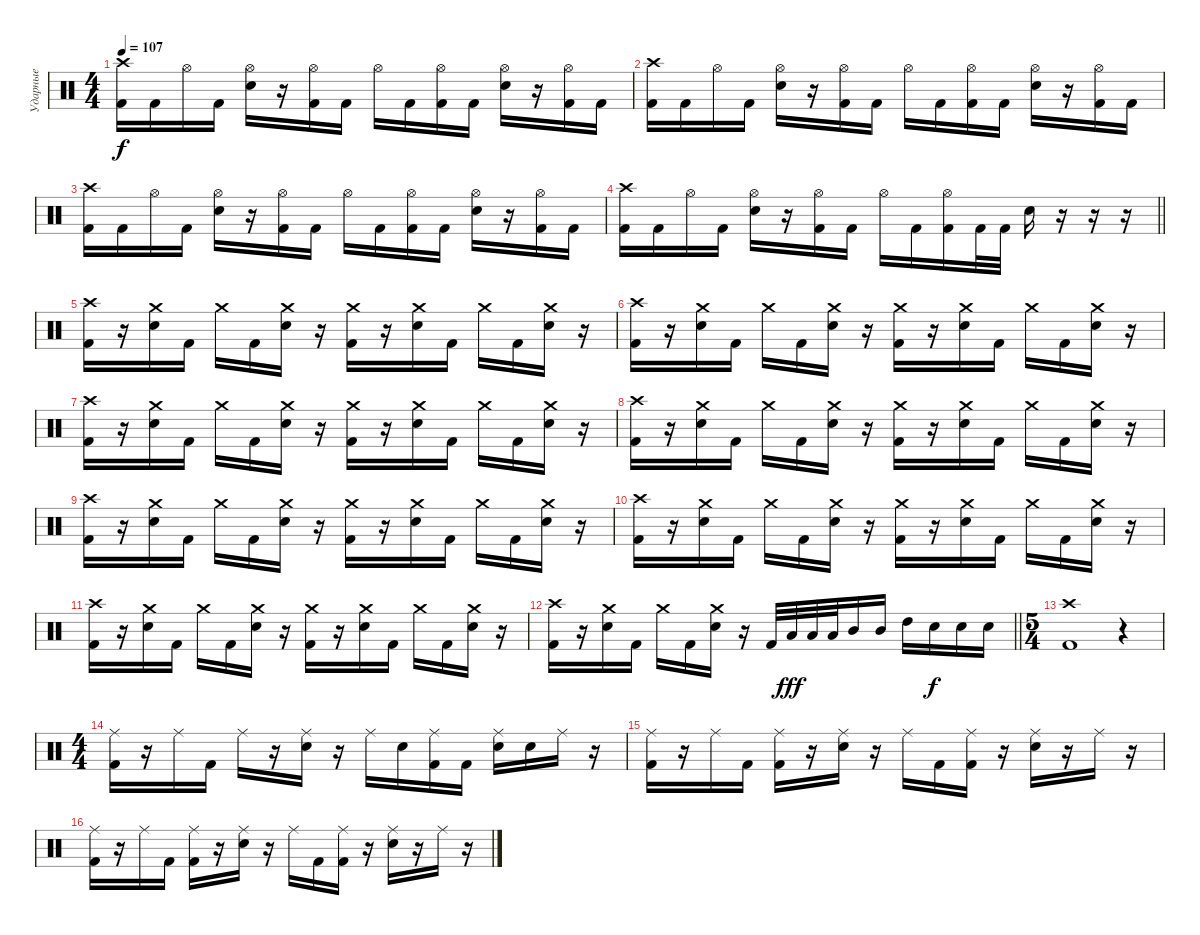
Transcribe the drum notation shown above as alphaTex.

\track ("Ударные" "Ударные") {instrument percussion}
\staff {score}
\articulation defaults
\ts (4 4)
\tempo 107
\clef neutral
\ks c
("Kick (hit) 2" "Crash high (hit)").16{dy f} "Kick (hit) 2".16 "Hi-Hat (open)".16 "Kick (hit) 2".16 ("Electric Snare (hit)" "Hi-Hat (open)").16 r.16 ("Kick (hit) 2" "Hi-Hat (open)").16 "Kick (hit) 2".16 "Hi-Hat (open)".16 "Kick (hit) 2".16 ("Kick (hit) 2" "Hi-Hat (open)").16 "Kick (hit) 2".16 ("Electric Snare (hit)" "Hi-Hat (open)").16 r.16 ("Kick (hit) 2" "Hi-Hat (open)").16 "Kick (hit) 2".16 |
("Kick (hit) 2" "Crash high (hit)").16 "Kick (hit) 2".16 "Hi-Hat (open)".16 "Kick (hit) 2".16 ("Electric Snare (hit)" "Hi-Hat (open)").16 r.16 ("Kick (hit) 2" "Hi-Hat (open)").16 "Kick (hit) 2".16 "Hi-Hat (open)".16 "Kick (hit) 2".16 ("Kick (hit) 2" "Hi-Hat (open)").16 "Kick (hit) 2".16 ("Electric Snare (hit)" "Hi-Hat (open)").16 r.16 ("Kick (hit) 2" "Hi-Hat (open)").16 "Kick (hit) 2".16 |
("Kick (hit) 2" "Crash high (hit)").16 "Kick (hit) 2".16 "Hi-Hat (open)".16 "Kick (hit) 2".16 ("Electric Snare (hit)" "Hi-Hat (open)").16 r.16 ("Kick (hit) 2" "Hi-Hat (open)").16 "Kick (hit) 2".16 "Hi-Hat (open)".16 "Kick (hit) 2".16 ("Kick (hit) 2" "Hi-Hat (open)").16 "Kick (hit) 2".16 ("Electric Snare (hit)" "Hi-Hat (open)").16 r.16 ("Kick (hit) 2" "Hi-Hat (open)").16 "Kick (hit) 2".16 |
\barLineRight lightlight
("Kick (hit) 2" "Crash high (hit)").16 "Kick (hit) 2".16 "Hi-Hat (open)".16 "Kick (hit) 2".16 ("Electric Snare (hit)" "Hi-Hat (open)").16 r.16 ("Kick (hit) 2" "Hi-Hat (open)").16 "Kick (hit) 2".16 "Hi-Hat (open)".16 "Kick (hit) 2".16 ("Kick (hit) 2" "Hi-Hat (open)").16 "Kick (hit) 2".32 "Kick (hit) 2".32 "Electric Snare (hit)".16 r.16 r.16 r.16 |
\section ("" "")
("Kick (hit) 2" "Crash high (hit)").16 r.16 ("Electric Snare (hit)" "Crash medium (hit)").16 "Kick (hit) 2".16 "Crash medium (hit)".16 "Kick (hit) 2".16 ("Electric Snare (hit)" "Crash medium (hit)").16 r.16 ("Kick (hit) 2" "Crash medium (hit)").16 r.16 ("Electric Snare (hit)" "Crash medium (hit)").16 "Kick (hit) 2".16 "Crash medium (hit)".16 "Kick (hit) 2".16 ("Electric Snare (hit)" "Crash medium (hit)").16 r.16 |
("Kick (hit) 2" "Crash high (hit)").16 r.16 ("Electric Snare (hit)" "Crash medium (hit)").16 "Kick (hit) 2".16 "Crash medium (hit)".16 "Kick (hit) 2".16 ("Electric Snare (hit)" "Crash medium (hit)").16 r.16 ("Kick (hit) 2" "Crash medium (hit)").16 r.16 ("Electric Snare (hit)" "Crash medium (hit)").16 "Kick (hit) 2".16 "Crash medium (hit)".16 "Kick (hit) 2".16 ("Electric Snare (hit)" "Crash medium (hit)").16 r.16 |
("Kick (hit) 2" "Crash high (hit)").16 r.16 ("Electric Snare (hit)" "Crash medium (hit)").16 "Kick (hit) 2".16 "Crash medium (hit)".16 "Kick (hit) 2".16 ("Electric Snare (hit)" "Crash medium (hit)").16 r.16 ("Kick (hit) 2" "Crash medium (hit)").16 r.16 ("Electric Snare (hit)" "Crash medium (hit)").16 "Kick (hit) 2".16 "Crash medium (hit)".16 "Kick (hit) 2".16 ("Electric Snare (hit)" "Crash medium (hit)").16 r.16 |
("Kick (hit) 2" "Crash high (hit)").16 r.16 ("Electric Snare (hit)" "Crash medium (hit)").16 "Kick (hit) 2".16 "Crash medium (hit)".16 "Kick (hit) 2".16 ("Electric Snare (hit)" "Crash medium (hit)").16 r.16 ("Kick (hit) 2" "Crash medium (hit)").16 r.16 ("Electric Snare (hit)" "Crash medium (hit)").16 "Kick (hit) 2".16 "Crash medium (hit)".16 "Kick (hit) 2".16 ("Electric Snare (hit)" "Crash medium (hit)").16 r.16 |
("Kick (hit) 2" "Crash high (hit)").16 r.16 ("Electric Snare (hit)" "Crash medium (hit)").16 "Kick (hit) 2".16 "Crash medium (hit)".16 "Kick (hit) 2".16 ("Electric Snare (hit)" "Crash medium (hit)").16 r.16 ("Kick (hit) 2" "Crash medium (hit)").16 r.16 ("Electric Snare (hit)" "Crash medium (hit)").16 "Kick (hit) 2".16 "Crash medium (hit)".16 "Kick (hit) 2".16 ("Electric Snare (hit)" "Crash medium (hit)").16 r.16 |
("Kick (hit) 2" "Crash high (hit)").16 r.16 ("Electric Snare (hit)" "Crash medium (hit)").16 "Kick (hit) 2".16 "Crash medium (hit)".16 "Kick (hit) 2".16 ("Electric Snare (hit)" "Crash medium (hit)").16 r.16 ("Kick (hit) 2" "Crash medium (hit)").16 r.16 ("Electric Snare (hit)" "Crash medium (hit)").16 "Kick (hit) 2".16 "Crash medium (hit)".16 "Kick (hit) 2".16 ("Electric Snare (hit)" "Crash medium (hit)").16 r.16 |
("Kick (hit) 2" "Crash high (hit)").16 r.16 ("Electric Snare (hit)" "Crash medium (hit)").16 "Kick (hit) 2".16 "Crash medium (hit)".16 "Kick (hit) 2".16 ("Electric Snare (hit)" "Crash medium (hit)").16 r.16 ("Kick (hit) 2" "Crash medium (hit)").16 r.16 ("Electric Snare (hit)" "Crash medium (hit)").16 "Kick (hit) 2".16 "Crash medium (hit)".16 "Kick (hit) 2".16 ("Electric Snare (hit)" "Crash medium (hit)").16 r.16 |
\barLineRight lightlight
("Kick (hit) 2" "Crash high (hit)").16 r.16 ("Electric Snare (hit)" "Crash medium (hit)").16 "Kick (hit) 2".16 "Crash medium (hit)".16 "Kick (hit) 2".16 ("Electric Snare (hit)" "Crash medium (hit)").16 r.16 "Kick (hit) 2".32 "Low Tom (hit)".32{dy fff} "Low Tom (hit)".32 "Low Tom (hit)".32 "Mid Tom (hit)".16 "Mid Tom (hit)".16 "High Tom (hit)".16 "Electric Snare (hit)".16{dy f} "Electric Snare (hit)".16 "Electric Snare (hit)".16 |
\ts (5 4)
\section ("" "")
("Kick (hit) 2" "Crash high (hit)").1 r.4 |
\ts (4 4)
("Kick (hit) 2" "Ride (middle)").16 r.16 "Ride (middle)".16 "Kick (hit) 2".16 "Ride (middle)".16 r.16 ("Electric Snare (hit)" "Ride (middle)").16 r.16 "Ride (middle)".16 "Electric Snare (hit)".16 ("Kick (hit) 2" "Ride (middle)").16 "Kick (hit) 2".16 ("Electric Snare (hit)" "Ride (middle)").16 "Electric Snare (hit)".16 "Ride (middle)".16 r.16 |
("Kick (hit) 2" "Ride (middle)").16 r.16 "Ride (middle)".16 "Kick (hit) 2".16 ("Kick (hit) 2" "Ride (middle)").16 r.16 ("Electric Snare (hit)" "Ride (middle)").16 r.16 "Ride (middle)".16 "Kick (hit) 2".16 ("Kick (hit) 2" "Ride (middle)").16 r.16 ("Electric Snare (hit)" "Ride (middle)").16 r.16 "Ride (middle)".16 r.16 |
("Kick (hit) 2" "Ride (middle)").16 r.16 "Ride (middle)".16 "Kick (hit) 2".16 ("Kick (hit) 2" "Ride (middle)").16 r.16 ("Electric Snare (hit)" "Ride (middle)").16 r.16 "Ride (middle)".16 "Kick (hit) 2".16 ("Kick (hit) 2" "Ride (middle)").16 r.16 ("Electric Snare (hit)" "Ride (middle)").16 r.16 "Ride (middle)".16 r.16
